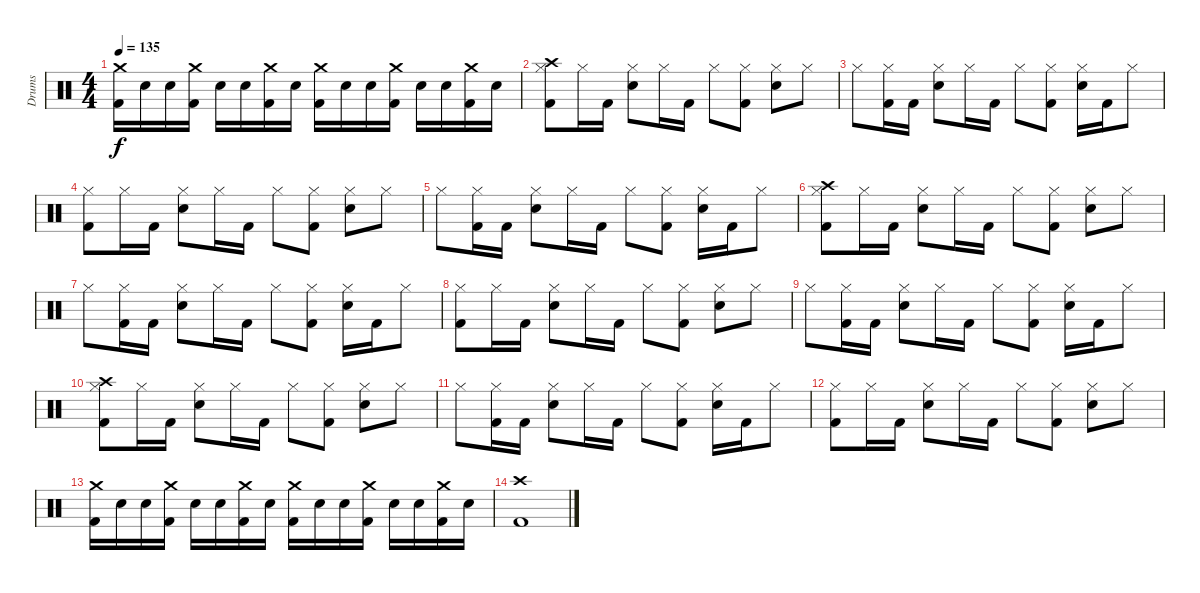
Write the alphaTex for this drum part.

\track ("Drums" "Drums") {instrument percussion}
\staff {score}
\articulation defaults
\ts (4 4)
\tempo 135
\clef neutral
\ks c
("Crash medium (hit)" "Kick (hit) 2").16{dy f} "Snare (hit) 2".16 "Snare (hit) 2".16 ("Crash medium (hit)" "Kick (hit) 2").16 "Snare (hit) 2".16 "Snare (hit) 2".16 ("Crash medium (hit)" "Kick (hit) 2").16 "Snare (hit) 2".16 ("Crash medium (hit)" "Kick (hit) 2").16 "Snare (hit) 2".16 "Snare (hit) 2".16 ("Crash medium (hit)" "Kick (hit) 2").16 "Snare (hit) 2".16 "Snare (hit) 2".16 ("Crash medium (hit)" "Kick (hit) 2").16 "Snare (hit) 2".16 |
("Hi-Hat (closed)" "Crash high (hit)" "Kick (hit) 2").8 "Hi-Hat (closed)".16 "Kick (hit) 2".16 ("Hi-Hat (closed)" "Snare (hit) 2").8 "Hi-Hat (closed)".16 "Kick (hit) 2".16 "Hi-Hat (closed)".8 ("Hi-Hat (closed)" "Kick (hit) 2").8 ("Hi-Hat (closed)" "Snare (hit) 2").8 "Hi-Hat (closed)".8 |
"Hi-Hat (closed)".8 ("Hi-Hat (closed)" "Kick (hit) 2").16 "Kick (hit) 2".16 ("Hi-Hat (closed)" "Snare (hit) 2").8 "Hi-Hat (closed)".16 "Kick (hit) 2".16 "Hi-Hat (closed)".8 ("Hi-Hat (closed)" "Kick (hit) 2").8 ("Hi-Hat (closed)" "Snare (hit) 2").16 "Kick (hit) 2".16 "Hi-Hat (closed)".8 |
("Hi-Hat (closed)" "Kick (hit) 2").8 "Hi-Hat (closed)".16 "Kick (hit) 2".16 ("Hi-Hat (closed)" "Snare (hit) 2").8 "Hi-Hat (closed)".16 "Kick (hit) 2".16 "Hi-Hat (closed)".8 ("Hi-Hat (closed)" "Kick (hit) 2").8 ("Hi-Hat (closed)" "Snare (hit) 2").8 "Hi-Hat (closed)".8 |
"Hi-Hat (closed)".8 ("Hi-Hat (closed)" "Kick (hit) 2").16 "Kick (hit) 2".16 ("Hi-Hat (closed)" "Snare (hit) 2").8 "Hi-Hat (closed)".16 "Kick (hit) 2".16 "Hi-Hat (closed)".8 ("Hi-Hat (closed)" "Kick (hit) 2").8 ("Hi-Hat (closed)" "Snare (hit) 2").16 "Kick (hit) 2".16 "Hi-Hat (closed)".8 |
("Hi-Hat (closed)" "Crash high (hit)" "Kick (hit) 2").8 "Hi-Hat (closed)".16 "Kick (hit) 2".16 ("Hi-Hat (closed)" "Snare (hit) 2").8 "Hi-Hat (closed)".16 "Kick (hit) 2".16 "Hi-Hat (closed)".8 ("Hi-Hat (closed)" "Kick (hit) 2").8 ("Hi-Hat (closed)" "Snare (hit) 2").8 "Hi-Hat (closed)".8 |
"Hi-Hat (closed)".8 ("Hi-Hat (closed)" "Kick (hit) 2").16 "Kick (hit) 2".16 ("Hi-Hat (closed)" "Snare (hit) 2").8 "Hi-Hat (closed)".16 "Kick (hit) 2".16 "Hi-Hat (closed)".8 ("Hi-Hat (closed)" "Kick (hit) 2").8 ("Hi-Hat (closed)" "Snare (hit) 2").16 "Kick (hit) 2".16 "Hi-Hat (closed)".8 |
("Hi-Hat (closed)" "Kick (hit) 2").8 "Hi-Hat (closed)".16 "Kick (hit) 2".16 ("Hi-Hat (closed)" "Snare (hit) 2").8 "Hi-Hat (closed)".16 "Kick (hit) 2".16 "Hi-Hat (closed)".8 ("Hi-Hat (closed)" "Kick (hit) 2").8 ("Hi-Hat (closed)" "Snare (hit) 2").8 "Hi-Hat (closed)".8 |
"Hi-Hat (closed)".8 ("Hi-Hat (closed)" "Kick (hit) 2").16 "Kick (hit) 2".16 ("Hi-Hat (closed)" "Snare (hit) 2").8 "Hi-Hat (closed)".16 "Kick (hit) 2".16 "Hi-Hat (closed)".8 ("Hi-Hat (closed)" "Kick (hit) 2").8 ("Hi-Hat (closed)" "Snare (hit) 2").16 "Kick (hit) 2".16 "Hi-Hat (closed)".8 |
("Hi-Hat (closed)" "Crash high (hit)" "Kick (hit) 2").8 "Hi-Hat (closed)".16 "Kick (hit) 2".16 ("Hi-Hat (closed)" "Snare (hit) 2").8 "Hi-Hat (closed)".16 "Kick (hit) 2".16 "Hi-Hat (closed)".8 ("Hi-Hat (closed)" "Kick (hit) 2").8 ("Hi-Hat (closed)" "Snare (hit) 2").8 "Hi-Hat (closed)".8 |
"Hi-Hat (closed)".8 ("Hi-Hat (closed)" "Kick (hit) 2").16 "Kick (hit) 2".16 ("Hi-Hat (closed)" "Snare (hit) 2").8 "Hi-Hat (closed)".16 "Kick (hit) 2".16 "Hi-Hat (closed)".8 ("Hi-Hat (closed)" "Kick (hit) 2").8 ("Hi-Hat (closed)" "Snare (hit) 2").16 "Kick (hit) 2".16 "Hi-Hat (closed)".8 |
("Hi-Hat (closed)" "Kick (hit) 2").8 "Hi-Hat (closed)".16 "Kick (hit) 2".16 ("Hi-Hat (closed)" "Snare (hit) 2").8 "Hi-Hat (closed)".16 "Kick (hit) 2".16 "Hi-Hat (closed)".8 ("Hi-Hat (closed)" "Kick (hit) 2").8 ("Hi-Hat (closed)" "Snare (hit) 2").8 "Hi-Hat (closed)".8 |
("Crash medium (hit)" "Kick (hit) 2").16 "Snare (hit) 2".16 "Snare (hit) 2".16 ("Crash medium (hit)" "Kick (hit) 2").16 "Snare (hit) 2".16 "Snare (hit) 2".16 ("Crash medium (hit)" "Kick (hit) 2").16 "Snare (hit) 2".16 ("Crash medium (hit)" "Kick (hit) 2").16 "Snare (hit) 2".16 "Snare (hit) 2".16 ("Crash medium (hit)" "Kick (hit) 2").16 "Snare (hit) 2".16 "Snare (hit) 2".16 ("Crash medium (hit)" "Kick (hit) 2").16 "Snare (hit) 2".16 |
("Crash high (hit)" "Kick (hit) 2").1
